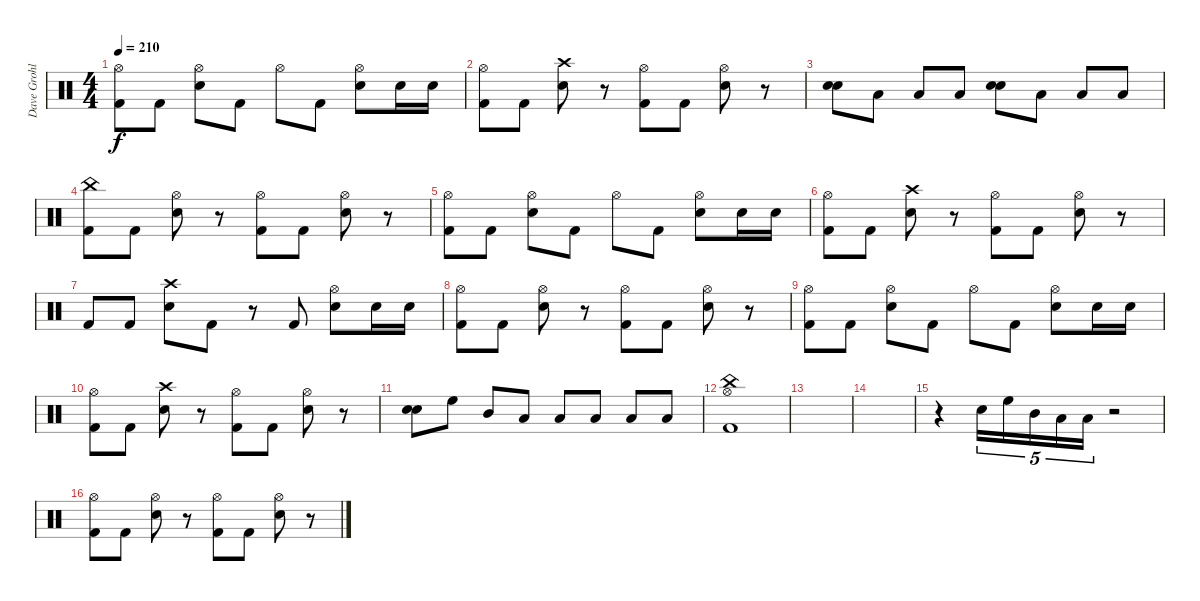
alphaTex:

\track ("Dave Grohl" "Dave Grohl") {instrument percussion}
\staff {score}
\articulation defaults
\ts (4 4)
\tempo 210
\clef neutral
\ks c
("Hi-Hat (open)" "Kick (hit) 2").8{dy f} "Kick (hit) 2".8 ("Hi-Hat (open)" "Snare (hit) 2").8 "Kick (hit) 2".8 "Hi-Hat (open)".8 "Kick (hit) 2".8 ("Hi-Hat (open)" "Snare (hit) 2").8 "Snare (hit) 2".16 "Snare (hit) 2".16 |
("Hi-Hat (open)" "Kick (hit) 2").8 "Kick (hit) 2".8 ("Crash high (hit)" "Snare (hit) 2").8 r.8 ("Hi-Hat (open)" "Kick (hit) 2").8 "Kick (hit) 2".8 ("Hi-Hat (open)" "Snare (hit) 2").8 r.8 |
("Snare (hit) 2" "Snare (hit) 2").8{bd 480} "Low Tom (hit)".8 "Low Floor Tom (hit)".8 "Low Floor Tom (hit)".8 ("Snare (hit) 2" "Snare (hit) 2").8{bu 480} "Low Tom (hit)".8 "Low Floor Tom (hit)".8 "Low Floor Tom (hit)".8 |
("China (hit)" "Kick (hit) 2").8 "Kick (hit) 2".8 ("Hi-Hat (open)" "Snare (hit) 2").8 r.8 ("Hi-Hat (open)" "Kick (hit) 2").8 "Kick (hit) 2".8 ("Hi-Hat (open)" "Snare (hit) 2").8 r.8 |
("Hi-Hat (open)" "Kick (hit) 2").8 "Kick (hit) 2".8 ("Hi-Hat (open)" "Snare (hit) 2").8 "Kick (hit) 2".8 "Hi-Hat (open)".8 "Kick (hit) 2".8 ("Hi-Hat (open)" "Snare (hit) 2").8 "Snare (hit) 2".16 "Snare (hit) 2".16 |
("Hi-Hat (open)" "Kick (hit) 2").8 "Kick (hit) 2".8 ("Crash high (hit)" "Snare (hit) 2").8 r.8 ("Hi-Hat (open)" "Kick (hit) 2").8 "Kick (hit) 2".8 ("Hi-Hat (open)" "Snare (hit) 2").8 r.8 |
"Kick (hit) 2".8 "Kick (hit) 2".8 ("Crash high (hit)" "Snare (hit) 2").8 "Kick (hit) 2".8 r.8 "Kick (hit) 2".8 ("Hi-Hat (open)" "Snare (hit) 2").8 "Snare (hit) 2".16 "Snare (hit) 2".16 |
("Hi-Hat (open)" "Kick (hit) 2").8 "Kick (hit) 2".8 ("Hi-Hat (open)" "Snare (hit) 2").8 r.8 ("Hi-Hat (open)" "Kick (hit) 2").8 "Kick (hit) 2".8 ("Hi-Hat (open)" "Snare (hit) 2").8 r.8 |
("Hi-Hat (open)" "Kick (hit) 2").8 "Kick (hit) 2".8 ("Hi-Hat (open)" "Snare (hit) 2").8 "Kick (hit) 2".8 "Hi-Hat (open)".8 "Kick (hit) 2".8 ("Hi-Hat (open)" "Snare (hit) 2").8 "Snare (hit) 2".16 "Snare (hit) 2".16 |
("Hi-Hat (open)" "Kick (hit) 2").8 "Kick (hit) 2".8 ("Crash high (hit)" "Snare (hit) 2").8 r.8 ("Hi-Hat (open)" "Kick (hit) 2").8 "Kick (hit) 2".8 ("Hi-Hat (open)" "Snare (hit) 2").8 r.8 |
("Snare (hit) 2" "Snare (hit) 2").8{bd 480} "High Floor Tom (hit)".8 "Mid Tom (hit)".8 "Low Tom (hit)".8 "Low Floor Tom (hit)".8 "Low Floor Tom (hit)".8 "Low Floor Tom (hit)".8 "Low Floor Tom (hit)".8 |
("China (hit)" "Hi-Hat (open)" "Kick (hit) 2").1 |
|
|
r.4 "Snare (hit) 2".16{tu (5 4)} "High Floor Tom (hit)".16{tu (5 4)} "Mid Tom (hit)".16{tu (5 4)} "Low Tom (hit)".16{tu (5 4)} "Low Floor Tom (hit)".16{tu (5 4)} r.2 |
("Hi-Hat (open)" "Kick (hit) 2").8 "Kick (hit) 2".8 ("Hi-Hat (open)" "Snare (hit) 2").8 r.8 ("Hi-Hat (open)" "Kick (hit) 2").8 "Kick (hit) 2".8 ("Hi-Hat (open)" "Snare (hit) 2").8 r.8
